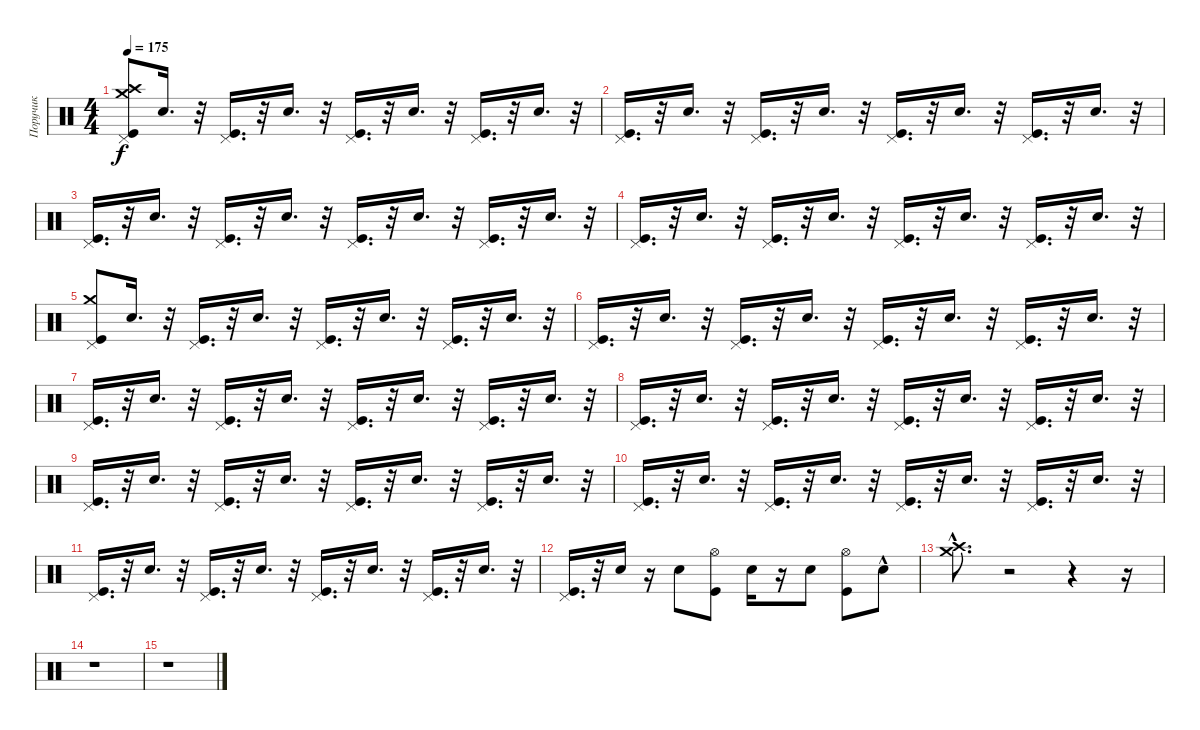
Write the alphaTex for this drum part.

\track ("Поручик" "Поручик") {instrument percussion}
\staff {score}
\articulation defaults
\ts (4 4)
\tempo 175
\clef neutral
\ks c
("Kick (hit)" "Crash medium (hit)" "Crash high (hit)" "Pedal Hi-Hat (hit)").8{dy f} "Snare (hit) 2".16{d} r.32 ("Pedal Hi-Hat (hit)" "Kick (hit)").16{d} r.32 "Snare (hit) 2".16{d} r.32 ("Kick (hit)" "Pedal Hi-Hat (hit)").16{d} r.32 "Snare (hit) 2".16{d} r.32 ("Kick (hit)" "Pedal Hi-Hat (hit)").16{d} r.32 "Snare (hit) 2".16{d} r.32 |
("Kick (hit)" "Pedal Hi-Hat (hit)").16{d} r.32 "Snare (hit) 2".16{d} r.32 ("Kick (hit)" "Pedal Hi-Hat (hit)").16{d} r.32 "Snare (hit) 2".16{d} r.32 ("Kick (hit)" "Pedal Hi-Hat (hit)").16{d} r.32 "Snare (hit) 2".16{d} r.32 ("Kick (hit)" "Pedal Hi-Hat (hit)").16{d} r.32 "Snare (hit) 2".16{d} r.32 |
("Kick (hit)" "Pedal Hi-Hat (hit)").16{d} r.32 "Snare (hit) 2".16{d} r.32 ("Kick (hit)" "Pedal Hi-Hat (hit)").16{d} r.32 "Snare (hit) 2".16{d} r.32 ("Kick (hit)" "Pedal Hi-Hat (hit)").16{d} r.32 "Snare (hit) 2".16{d} r.32 ("Pedal Hi-Hat (hit)" "Kick (hit)").16{d} r.32 "Snare (hit) 2".16{d} r.32 |
("Kick (hit)" "Pedal Hi-Hat (hit)").16{d} r.32 "Snare (hit) 2".16{d} r.32 ("Pedal Hi-Hat (hit)" "Kick (hit)").16{d} r.32 "Snare (hit) 2".16{d} r.32 ("Pedal Hi-Hat (hit)" "Kick (hit)").16{d} r.32 "Snare (hit) 2".16{d} r.32 ("Kick (hit)" "Pedal Hi-Hat (hit)").16{d} r.32 "Snare (hit) 2".16{d} r.32 |
("Crash medium (hit)" "Kick (hit)" "Pedal Hi-Hat (hit)").8 "Snare (hit) 2".16{d} r.32 ("Pedal Hi-Hat (hit)" "Kick (hit)").16{d} r.32 "Snare (hit) 2".16{d} r.32 ("Pedal Hi-Hat (hit)" "Kick (hit)").16{d} r.32 "Snare (hit) 2".16{d} r.32 ("Pedal Hi-Hat (hit)" "Kick (hit)").16{d} r.32 "Snare (hit) 2".16{d} r.32 |
("Pedal Hi-Hat (hit)" "Kick (hit)").16{d} r.32 "Snare (hit) 2".16{d} r.32 ("Pedal Hi-Hat (hit)" "Kick (hit)").16{d} r.32 "Snare (hit) 2".16{d} r.32 ("Pedal Hi-Hat (hit)" "Kick (hit)").16{d} r.32 "Snare (hit) 2".16{d} r.32 ("Pedal Hi-Hat (hit)" "Kick (hit)").16{d} r.32 "Snare (hit) 2".16{d} r.32 |
("Pedal Hi-Hat (hit)" "Kick (hit)").16{d} r.32 "Snare (hit) 2".16{d} r.32 ("Pedal Hi-Hat (hit)" "Kick (hit)").16{d} r.32 "Snare (hit) 2".16{d} r.32 ("Pedal Hi-Hat (hit)" "Kick (hit)").16{d} r.32 "Snare (hit) 2".16{d} r.32 ("Pedal Hi-Hat (hit)" "Kick (hit)").16{d} r.32 "Snare (hit) 2".16{d} r.32 |
("Pedal Hi-Hat (hit)" "Kick (hit)").16{d} r.32 "Snare (hit) 2".16{d} r.32 ("Pedal Hi-Hat (hit)" "Kick (hit)").16{d} r.32 "Snare (hit) 2".16{d} r.32 ("Pedal Hi-Hat (hit)" "Kick (hit)").16{d} r.32 "Snare (hit) 2".16{d} r.32 ("Kick (hit)" "Pedal Hi-Hat (hit)").16{d} r.32 "Snare (hit) 2".16{d} r.32 |
("Kick (hit)" "Pedal Hi-Hat (hit)").16{d} r.32 "Snare (hit) 2".16{d} r.32 ("Kick (hit)" "Pedal Hi-Hat (hit)").16{d} r.32 "Snare (hit) 2".16{d} r.32 ("Kick (hit)" "Pedal Hi-Hat (hit)").16{d} r.32 "Snare (hit) 2".16{d} r.32 ("Pedal Hi-Hat (hit)" "Kick (hit)").16{d} r.32 "Snare (hit) 2".16{d} r.32 |
("Kick (hit)" "Pedal Hi-Hat (hit)").16{d} r.32 "Snare (hit) 2".16{d} r.32 ("Kick (hit)" "Pedal Hi-Hat (hit)").16{d} r.32 "Snare (hit) 2".16{d} r.32 ("Kick (hit)" "Pedal Hi-Hat (hit)").16{d} r.32 "Snare (hit) 2".16{d} r.32 ("Kick (hit)" "Pedal Hi-Hat (hit)").16{d} r.32 "Snare (hit) 2".16{d} r.32 |
("Kick (hit)" "Pedal Hi-Hat (hit)").16{d} r.32 "Snare (hit) 2".16{d} r.32 ("Kick (hit)" "Pedal Hi-Hat (hit)").16{d} r.32 "Snare (hit) 2".16{d} r.32 ("Kick (hit)" "Pedal Hi-Hat (hit)").16{d} r.32 "Snare (hit) 2".16{d} r.32 ("Pedal Hi-Hat (hit)" "Kick (hit)").16{d} r.32 "Snare (hit) 2".16{d} r.32 |
("Kick (hit)" "Pedal Hi-Hat (hit)").16{d} r.32 "Snare (hit) 2".16 r.16 "Snare (hit) 2".8 ("Kick (hit)" "Hi-Hat (open)").8 "Snare (hit) 2".16 r.16 "Snare (hit) 2".8 ("Hi-Hat (open)" "Kick (hit)").8 "Snare (hit) 2"{hac}.8 |
("Crash high (hit)" "Crash medium (hit)"{hac}).8{d} r.2 r.4 r.16 |
r.1 |
r.1
